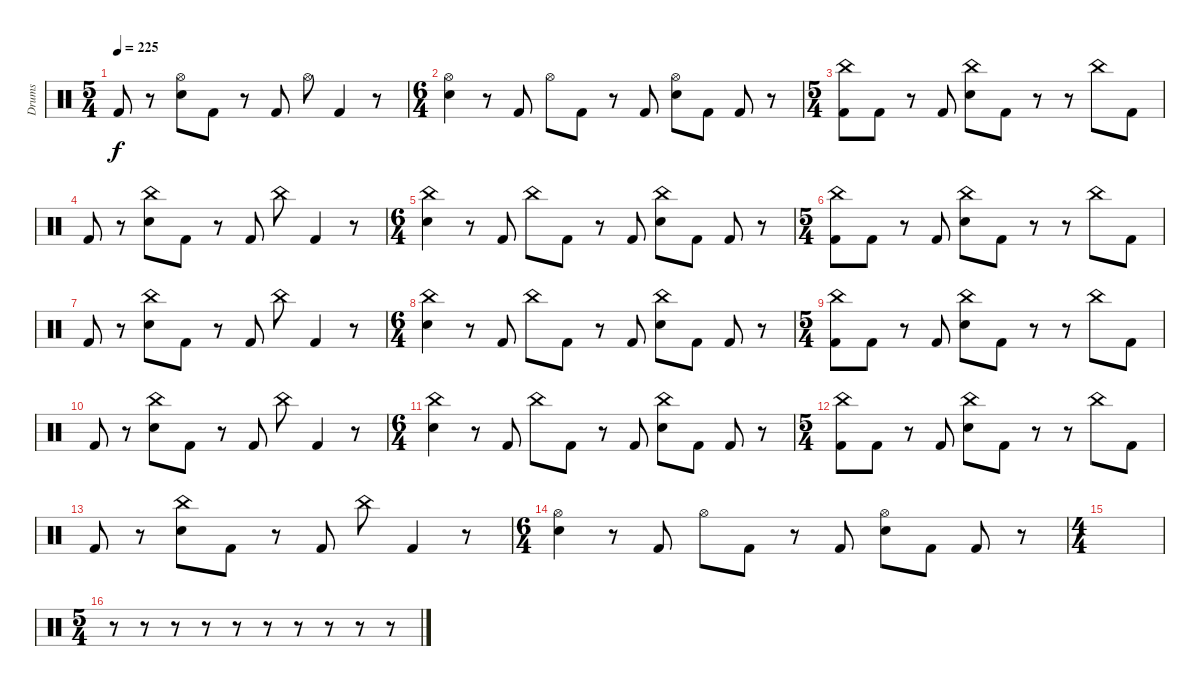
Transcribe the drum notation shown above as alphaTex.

\track ("Drums" "Drums") {instrument percussion}
\staff {score}
\articulation defaults
\ts (5 4)
\tempo 225
\clef neutral
\ks c "Kick (hit) 2".8{dy f}
r.8 ("Hi-Hat (open)" "Electric Snare (hit)").8 "Kick (hit) 2".8 r.8 "Kick (hit) 2".8 "Hi-Hat (open)".8 "Kick (hit) 2".4 r.8 |
\ts (6 4)
("Hi-Hat (open)" "Electric Snare (hit)").4 r.8 "Kick (hit) 2".8 "Hi-Hat (open)".8 "Kick (hit) 2".8 r.8 "Kick (hit) 2".8 ("Hi-Hat (open)" "Electric Snare (hit)").8 "Kick (hit) 2".8 "Kick (hit) 2".8 r.8 |
\ts (5 4)
("China (hit)" "Kick (hit) 2").8 "Kick (hit) 2".8 r.8 "Kick (hit) 2".8 ("China (hit)" "Electric Snare (hit)").8 "Kick (hit) 2".8 r.8 r.8 "China (hit)".8 "Kick (hit) 2".8 |
"Kick (hit) 2".8 r.8 ("China (hit)" "Electric Snare (hit)").8 "Kick (hit) 2".8 r.8 "Kick (hit) 2".8 "China (hit)".8 "Kick (hit) 2".4 r.8 |
\ts (6 4)
("China (hit)" "Electric Snare (hit)").4 r.8 "Kick (hit) 2".8 "China (hit)".8 "Kick (hit) 2".8 r.8 "Kick (hit) 2".8 ("China (hit)" "Electric Snare (hit)").8 "Kick (hit) 2".8 "Kick (hit) 2".8 r.8 |
\ts (5 4)
("China (hit)" "Kick (hit) 2").8 "Kick (hit) 2".8 r.8 "Kick (hit) 2".8 ("China (hit)" "Electric Snare (hit)").8 "Kick (hit) 2".8 r.8 r.8 "China (hit)".8 "Kick (hit) 2".8 |
"Kick (hit) 2".8 r.8 ("China (hit)" "Electric Snare (hit)").8 "Kick (hit) 2".8 r.8 "Kick (hit) 2".8 "China (hit)".8 "Kick (hit) 2".4 r.8 |
\ts (6 4)
("China (hit)" "Electric Snare (hit)").4 r.8 "Kick (hit) 2".8 "China (hit)".8 "Kick (hit) 2".8 r.8 "Kick (hit) 2".8 ("China (hit)" "Electric Snare (hit)").8 "Kick (hit) 2".8 "Kick (hit) 2".8 r.8 |
\ts (5 4)
("China (hit)" "Kick (hit) 2").8 "Kick (hit) 2".8 r.8 "Kick (hit) 2".8 ("China (hit)" "Electric Snare (hit)").8 "Kick (hit) 2".8 r.8 r.8 "China (hit)".8 "Kick (hit) 2".8 |
"Kick (hit) 2".8 r.8 ("China (hit)" "Electric Snare (hit)").8 "Kick (hit) 2".8 r.8 "Kick (hit) 2".8 "China (hit)".8 "Kick (hit) 2".4 r.8 |
\ts (6 4)
("China (hit)" "Electric Snare (hit)").4 r.8 "Kick (hit) 2".8 "China (hit)".8 "Kick (hit) 2".8 r.8 "Kick (hit) 2".8 ("China (hit)" "Electric Snare (hit)").8 "Kick (hit) 2".8 "Kick (hit) 2".8 r.8 |
\ts (5 4)
("China (hit)" "Kick (hit) 2").8 "Kick (hit) 2".8 r.8 "Kick (hit) 2".8 ("China (hit)" "Electric Snare (hit)").8 "Kick (hit) 2".8 r.8 r.8 "China (hit)".8 "Kick (hit) 2".8 |
"Kick (hit) 2".8 r.8 ("China (hit)" "Electric Snare (hit)").8 "Kick (hit) 2".8 r.8 "Kick (hit) 2".8 "China (hit)".8 "Kick (hit) 2".4 r.8 |
\ts (6 4)
("Hi-Hat (open)" "Electric Snare (hit)").4 r.8 "Kick (hit) 2".8 "Hi-Hat (open)".8 "Kick (hit) 2".8 r.8 "Kick (hit) 2".8 ("Hi-Hat (open)" "Electric Snare (hit)").8 "Kick (hit) 2".8 "Kick (hit) 2".8 r.8 |
\ts (4 4)
|
\ts (5 4)
r.8 r.8 r.8 r.8 r.8 r.8 r.8 r.8 r.8 r.8
